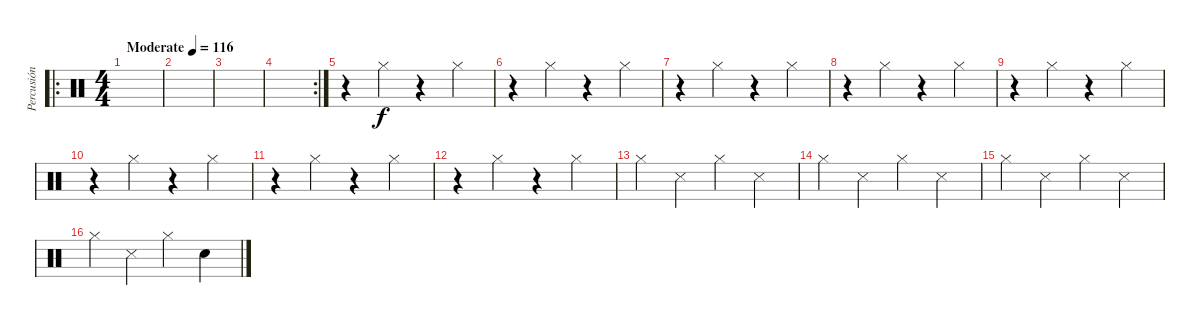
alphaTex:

\track ("Percusión" "Percusión") {instrument percussion}
\staff {score}
\articulation defaults
\ro
\ts (4 4)
\tempo (116 "Moderate")
\clef neutral
\ks c
|
|
|
\rc 2
|
r.4 "Hi-Hat (closed)".4 r.4 "Hi-Hat (closed)".4 |
r.4 "Hi-Hat (closed)".4 r.4 "Hi-Hat (closed)".4 |
r.4 "Hi-Hat (closed)".4 r.4 "Hi-Hat (closed)".4 |
r.4 "Hi-Hat (closed)".4 r.4 "Hi-Hat (closed)".4 |
r.4 "Hi-Hat (closed)".4 r.4 "Hi-Hat (closed)".4 |
r.4 "Hi-Hat (closed)".4 r.4 "Hi-Hat (closed)".4 |
r.4 "Hi-Hat (closed)".4 r.4 "Hi-Hat (closed)".4 |
r.4 "Hi-Hat (closed)".4 r.4 "Hi-Hat (closed)".4 |
"Hi-Hat (closed)".4 "Metronome (hit)".4 "Hi-Hat (closed)".4 "Metronome (hit)".4 |
"Hi-Hat (closed)".4 "Metronome (hit)".4 "Hi-Hat (closed)".4 "Metronome (hit)".4 |
"Hi-Hat (closed)".4 "Metronome (hit)".4 "Hi-Hat (closed)".4 "Metronome (hit)".4 |
"Hi-Hat (closed)".4 "Metronome (hit)".4 "Hi-Hat (closed)".4 "Electric Snare (hit)".4
